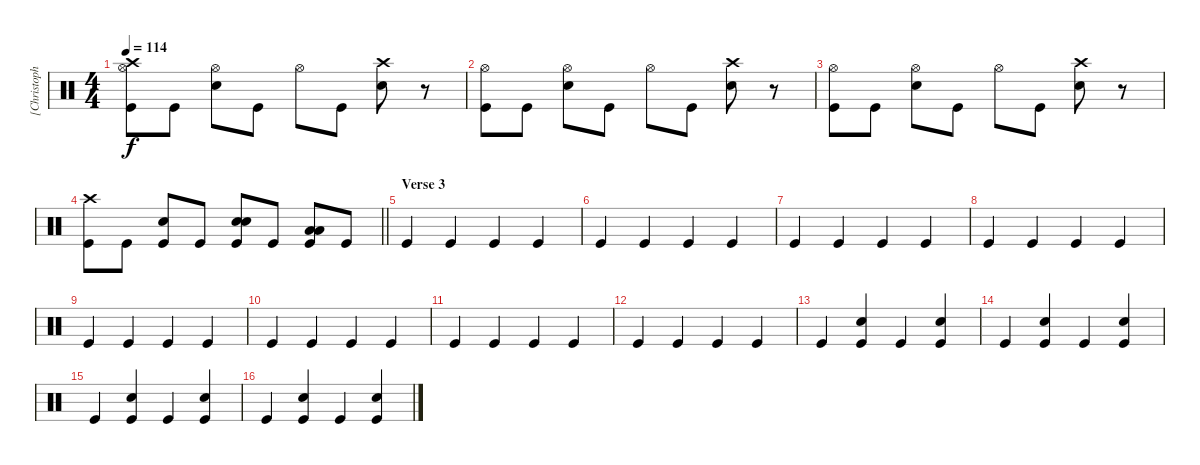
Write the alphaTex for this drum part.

\track ("[Christoph Schneider] ;Drums" "[Christoph") {solo instrument percussion}
\staff {score}
\articulation defaults
\ts (4 4)
\tempo 114
\clef neutral
\ks c
("Kick (hit)" "Crash high (hit)" "Hi-Hat (open)").8{dy f} "Kick (hit)".8 ("Hi-Hat (open)" "Snare (hit) 2").8 "Kick (hit)".8 "Hi-Hat (open)".8 "Kick (hit)".8 ("Crash high (hit)" "Snare (hit) 2").8 r.8 |
("Kick (hit)" "Hi-Hat (open)").8 "Kick (hit)".8 ("Hi-Hat (open)" "Snare (hit) 2").8 "Kick (hit)".8 "Hi-Hat (open)".8 "Kick (hit)".8 ("Crash high (hit)" "Snare (hit) 2").8 r.8 |
("Kick (hit)" "Hi-Hat (open)").8 "Kick (hit)".8 ("Hi-Hat (open)" "Snare (hit) 2").8 "Kick (hit)".8 "Hi-Hat (open)".8 "Kick (hit)".8 ("Crash high (hit)" "Snare (hit) 2").8 r.8 |
\barLineRight lightlight
("Kick (hit)" "Crash high (hit)").8 "Kick (hit)".8 ("Kick (hit)" "Snare (hit) 2").8 "Kick (hit)".8 ("Kick (hit)" "Snare (hit) 2" "Snare (hit) 2").8 "Kick (hit)".8 ("Kick (hit)" "Low Floor Tom (hit)" "Low Floor Tom (hit)").8 "Kick (hit)".8 |
\section ("" "Verse 3")
"Kick (hit)".4 "Kick (hit)".4 "Kick (hit)".4 "Kick (hit)".4 |
"Kick (hit)".4 "Kick (hit)".4 "Kick (hit)".4 "Kick (hit)".4 |
"Kick (hit)".4 "Kick (hit)".4 "Kick (hit)".4 "Kick (hit)".4 |
"Kick (hit)".4 "Kick (hit)".4 "Kick (hit)".4 "Kick (hit)".4 |
"Kick (hit)".4 "Kick (hit)".4 "Kick (hit)".4 "Kick (hit)".4 |
"Kick (hit)".4 "Kick (hit)".4 "Kick (hit)".4 "Kick (hit)".4 |
"Kick (hit)".4 "Kick (hit)".4 "Kick (hit)".4 "Kick (hit)".4 |
"Kick (hit)".4 "Kick (hit)".4 "Kick (hit)".4 "Kick (hit)".4 |
"Kick (hit)".4 ("Kick (hit)" "Snare (hit) 2").4 "Kick (hit)".4 ("Kick (hit)" "Snare (hit) 2").4 |
"Kick (hit)".4 ("Kick (hit)" "Snare (hit) 2").4 "Kick (hit)".4 ("Kick (hit)" "Snare (hit) 2").4 |
"Kick (hit)".4 ("Kick (hit)" "Snare (hit) 2").4 "Kick (hit)".4 ("Kick (hit)" "Snare (hit) 2").4 |
"Kick (hit)".4 ("Kick (hit)" "Snare (hit) 2").4 "Kick (hit)".4 ("Kick (hit)" "Snare (hit) 2").4
